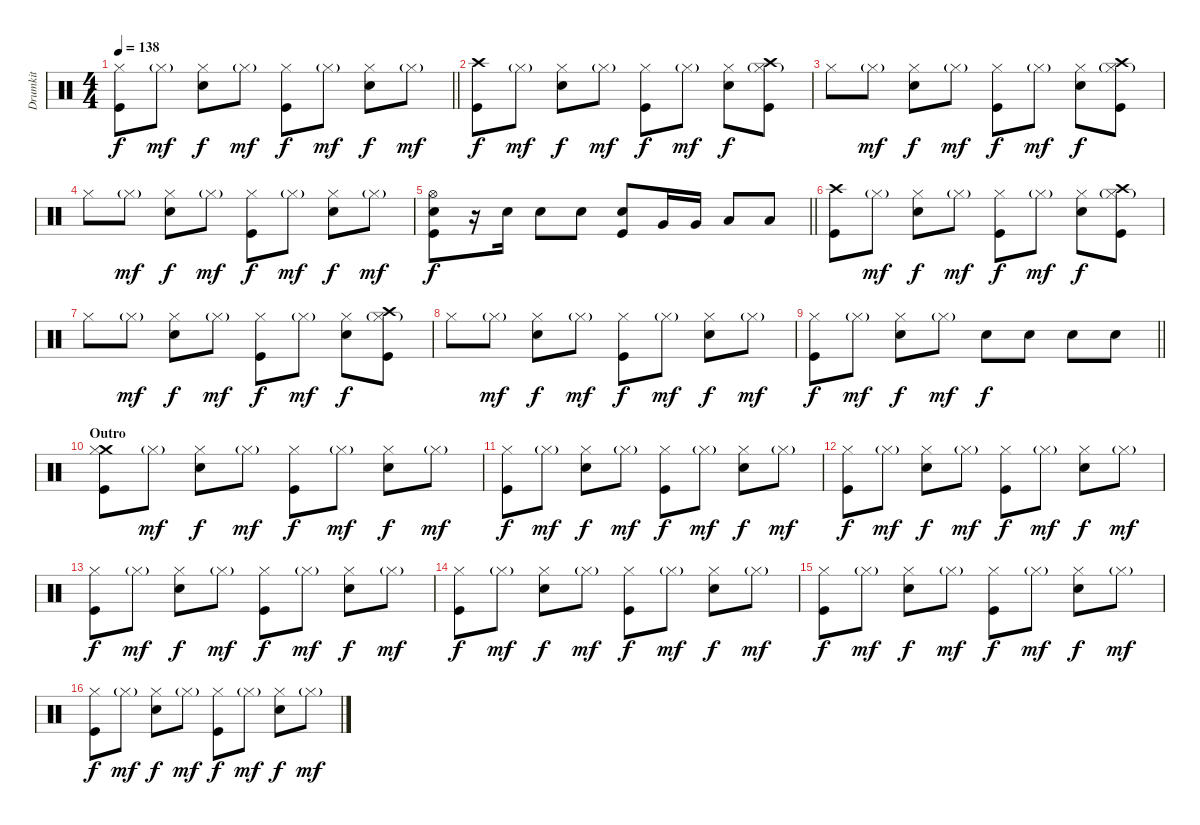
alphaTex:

\track ("Drumkit" "Drumkit") {instrument percussion}
\staff {score}
\articulation defaults
\ts (4 4)
\tempo 138
\clef neutral
\barLineRight lightlight
\ks c
("Hi-Hat (closed)" "Kick (hit)").8{dy f} "Hi-Hat (closed)"{g}.8{dy mf} ("Hi-Hat (closed)" "Snare (hit) 2").8{dy f} "Hi-Hat (closed)"{g}.8{dy mf} ("Hi-Hat (closed)" "Kick (hit)").8{dy f} "Hi-Hat (closed)"{g}.8{dy mf} ("Hi-Hat (closed)" "Snare (hit) 2").8{dy f} "Hi-Hat (closed)"{g}.8{dy mf} |
("Crash high (hit)" "Kick (hit)").8{dy f} "Hi-Hat (closed)"{g}.8{dy mf} ("Hi-Hat (closed)" "Snare (hit) 2").8{dy f} "Hi-Hat (closed)"{g}.8{dy mf} ("Hi-Hat (closed)" "Kick (hit)").8{dy f} "Hi-Hat (closed)"{g}.8{dy mf} ("Hi-Hat (closed)" "Snare (hit) 2").8{dy f} ("Crash high (hit)" "Hi-Hat (closed)"{g} "Kick (hit)").8 |
"Hi-Hat (closed)".8 "Hi-Hat (closed)"{g}.8{dy mf} ("Hi-Hat (closed)" "Snare (hit) 2").8{dy f} "Hi-Hat (closed)"{g}.8{dy mf} ("Hi-Hat (closed)" "Kick (hit)").8{dy f} "Hi-Hat (closed)"{g}.8{dy mf} ("Hi-Hat (closed)" "Snare (hit) 2").8{dy f} ("Crash high (hit)" "Hi-Hat (closed)"{g} "Kick (hit)").8 |
"Hi-Hat (closed)".8 "Hi-Hat (closed)"{g}.8{dy mf} ("Hi-Hat (closed)" "Snare (hit) 2").8{dy f} "Hi-Hat (closed)"{g}.8{dy mf} ("Hi-Hat (closed)" "Kick (hit)").8{dy f} "Hi-Hat (closed)"{g}.8{dy mf} ("Hi-Hat (closed)" "Snare (hit) 2").8{dy f} "Hi-Hat (closed)"{g}.8{dy mf} |
\barLineRight lightlight
("Hi-Hat (open)" "Snare (hit) 2" "Kick (hit)").8{dy f} r.16 "Snare (hit) 2".16 "Snare (hit) 2".8 "Snare (hit) 2".8 ("Snare (hit) 2" "Kick (hit)").8 "Very Low Tom (hit)".16 "Very Low Tom (hit)".16 "Low Floor Tom (hit)".8 "Low Floor Tom (hit)".8 |
\section ("" "")
("Crash high (hit)" "Kick (hit)").8 "Hi-Hat (closed)"{g}.8{dy mf} ("Hi-Hat (closed)" "Snare (hit) 2").8{dy f} "Hi-Hat (closed)"{g}.8{dy mf} ("Hi-Hat (closed)" "Kick (hit)").8{dy f} "Hi-Hat (closed)"{g}.8{dy mf} ("Hi-Hat (closed)" "Snare (hit) 2").8{dy f} ("Crash high (hit)" "Hi-Hat (closed)"{g} "Kick (hit)").8 |
"Hi-Hat (closed)".8 "Hi-Hat (closed)"{g}.8{dy mf} ("Hi-Hat (closed)" "Snare (hit) 2").8{dy f} "Hi-Hat (closed)"{g}.8{dy mf} ("Hi-Hat (closed)" "Kick (hit)").8{dy f} "Hi-Hat (closed)"{g}.8{dy mf} ("Hi-Hat (closed)" "Snare (hit) 2").8{dy f} ("Crash high (hit)" "Hi-Hat (closed)"{g} "Kick (hit)").8 |
"Hi-Hat (closed)".8 "Hi-Hat (closed)"{g}.8{dy mf} ("Hi-Hat (closed)" "Snare (hit) 2").8{dy f} "Hi-Hat (closed)"{g}.8{dy mf} ("Hi-Hat (closed)" "Kick (hit)").8{dy f} "Hi-Hat (closed)"{g}.8{dy mf} ("Hi-Hat (closed)" "Snare (hit) 2").8{dy f} "Hi-Hat (closed)"{g}.8{dy mf} |
\barLineRight lightlight
("Hi-Hat (closed)" "Kick (hit)").8{dy f} "Hi-Hat (closed)"{g}.8{dy mf} ("Hi-Hat (closed)" "Snare (hit) 2").8{dy f} "Hi-Hat (closed)"{g}.8{dy mf} "Snare (hit) 2".8{dy f} "Snare (hit) 2".8 "Snare (hit) 2".8 "Snare (hit) 2".8 |
\section ("" "Outro")
("Crash medium (hit)" "Hi-Hat (closed)" "Kick (hit)").8 "Hi-Hat (closed)"{g}.8{dy mf} ("Hi-Hat (closed)" "Snare (hit) 2").8{dy f} "Hi-Hat (closed)"{g}.8{dy mf} ("Hi-Hat (closed)" "Kick (hit)").8{dy f} "Hi-Hat (closed)"{g}.8{dy mf} ("Hi-Hat (closed)" "Snare (hit) 2").8{dy f} "Hi-Hat (closed)"{g}.8{dy mf} |
("Hi-Hat (closed)" "Kick (hit)").8{dy f} "Hi-Hat (closed)"{g}.8{dy mf} ("Hi-Hat (closed)" "Snare (hit) 2").8{dy f} "Hi-Hat (closed)"{g}.8{dy mf} ("Hi-Hat (closed)" "Kick (hit)").8{dy f} "Hi-Hat (closed)"{g}.8{dy mf} ("Hi-Hat (closed)" "Snare (hit) 2").8{dy f} "Hi-Hat (closed)"{g}.8{dy mf} |
("Hi-Hat (closed)" "Kick (hit)").8{dy f} "Hi-Hat (closed)"{g}.8{dy mf} ("Hi-Hat (closed)" "Snare (hit) 2").8{dy f} "Hi-Hat (closed)"{g}.8{dy mf} ("Hi-Hat (closed)" "Kick (hit)").8{dy f} "Hi-Hat (closed)"{g}.8{dy mf} ("Hi-Hat (closed)" "Snare (hit) 2").8{dy f} "Hi-Hat (closed)"{g}.8{dy mf} |
("Hi-Hat (closed)" "Kick (hit)").8{dy f} "Hi-Hat (closed)"{g}.8{dy mf} ("Hi-Hat (closed)" "Snare (hit) 2").8{dy f} "Hi-Hat (closed)"{g}.8{dy mf} ("Hi-Hat (closed)" "Kick (hit)").8{dy f} "Hi-Hat (closed)"{g}.8{dy mf} ("Hi-Hat (closed)" "Snare (hit) 2").8{dy f} "Hi-Hat (closed)"{g}.8{dy mf} |
("Hi-Hat (closed)" "Kick (hit)").8{dy f} "Hi-Hat (closed)"{g}.8{dy mf} ("Hi-Hat (closed)" "Snare (hit) 2").8{dy f} "Hi-Hat (closed)"{g}.8{dy mf} ("Hi-Hat (closed)" "Kick (hit)").8{dy f} "Hi-Hat (closed)"{g}.8{dy mf} ("Hi-Hat (closed)" "Snare (hit) 2").8{dy f} "Hi-Hat (closed)"{g}.8{dy mf} |
("Hi-Hat (closed)" "Kick (hit)").8{dy f} "Hi-Hat (closed)"{g}.8{dy mf} ("Hi-Hat (closed)" "Snare (hit) 2").8{dy f} "Hi-Hat (closed)"{g}.8{dy mf} ("Hi-Hat (closed)" "Kick (hit)").8{dy f} "Hi-Hat (closed)"{g}.8{dy mf} ("Hi-Hat (closed)" "Snare (hit) 2").8{dy f} "Hi-Hat (closed)"{g}.8{dy mf} |
("Hi-Hat (closed)" "Kick (hit)").8{dy f} "Hi-Hat (closed)"{g}.8{dy mf} ("Hi-Hat (closed)" "Snare (hit) 2").8{dy f} "Hi-Hat (closed)"{g}.8{dy mf} ("Hi-Hat (closed)" "Kick (hit)").8{dy f} "Hi-Hat (closed)"{g}.8{dy mf} ("Hi-Hat (closed)" "Snare (hit) 2").8{dy f} "Hi-Hat (closed)"{g}.8{dy mf}
